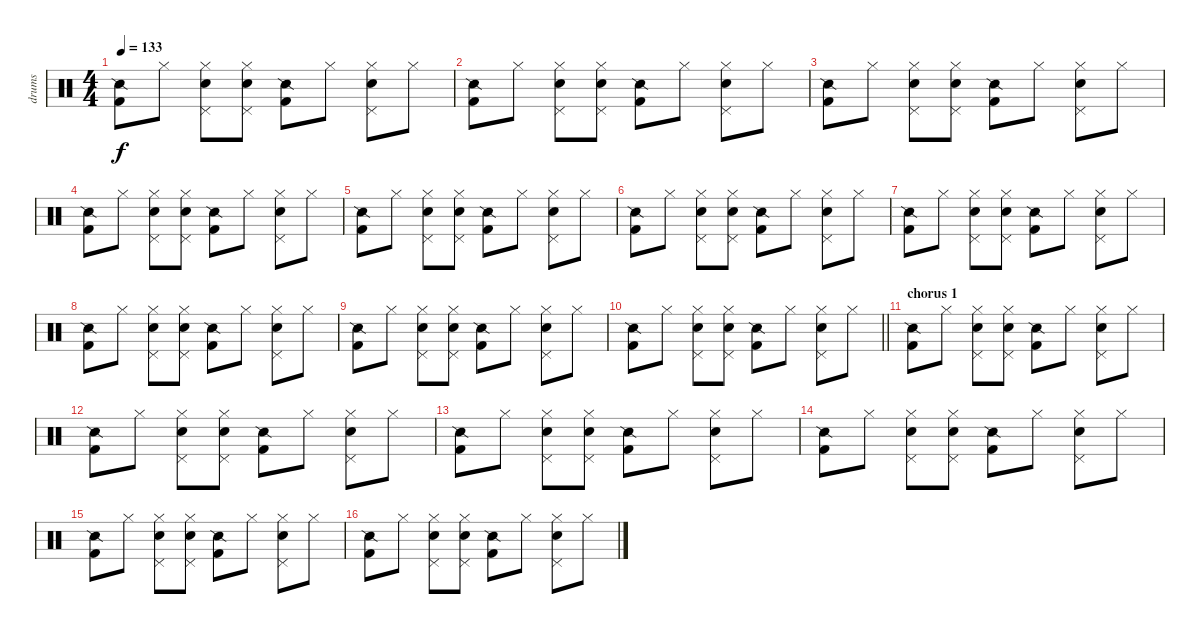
\track ("drums" "drums") {instrument percussion}
\staff {score}
\articulation defaults
\ts (4 4)
\tempo 133
\clef neutral
\ks c
("Snare (side stick) 2" "Kick (hit) 2").8{dy f} "Hi-Hat (closed)".8 ("Hi-Hat (closed)" "Electric Snare (hit)" "Pedal Hi-Hat (hit)").8 ("Hi-Hat (closed)" "Electric Snare (hit)" "Pedal Hi-Hat (hit)").8 ("Snare (side stick) 2" "Kick (hit) 2").8 "Hi-Hat (closed)".8 ("Hi-Hat (closed)" "Electric Snare (hit)" "Pedal Hi-Hat (hit)").8 "Hi-Hat (closed)".8 |
("Snare (side stick) 2" "Kick (hit) 2").8 "Hi-Hat (closed)".8 ("Hi-Hat (closed)" "Electric Snare (hit)" "Pedal Hi-Hat (hit)").8 ("Hi-Hat (closed)" "Electric Snare (hit)" "Pedal Hi-Hat (hit)").8 ("Snare (side stick) 2" "Kick (hit) 2").8 "Hi-Hat (closed)".8 ("Hi-Hat (closed)" "Electric Snare (hit)" "Pedal Hi-Hat (hit)").8 "Hi-Hat (closed)".8 |
("Snare (side stick) 2" "Kick (hit) 2").8 "Hi-Hat (closed)".8 ("Hi-Hat (closed)" "Electric Snare (hit)" "Pedal Hi-Hat (hit)").8 ("Hi-Hat (closed)" "Electric Snare (hit)" "Pedal Hi-Hat (hit)").8 ("Snare (side stick) 2" "Kick (hit) 2").8 "Hi-Hat (closed)".8 ("Hi-Hat (closed)" "Electric Snare (hit)" "Pedal Hi-Hat (hit)").8 "Hi-Hat (closed)".8 |
("Snare (side stick) 2" "Kick (hit) 2").8 "Hi-Hat (closed)".8 ("Hi-Hat (closed)" "Electric Snare (hit)" "Pedal Hi-Hat (hit)").8 ("Hi-Hat (closed)" "Electric Snare (hit)" "Pedal Hi-Hat (hit)").8 ("Snare (side stick) 2" "Kick (hit) 2").8 "Hi-Hat (closed)".8 ("Hi-Hat (closed)" "Electric Snare (hit)" "Pedal Hi-Hat (hit)").8 "Hi-Hat (closed)".8 |
("Snare (side stick) 2" "Kick (hit) 2").8 "Hi-Hat (closed)".8 ("Hi-Hat (closed)" "Electric Snare (hit)" "Pedal Hi-Hat (hit)").8 ("Hi-Hat (closed)" "Electric Snare (hit)" "Pedal Hi-Hat (hit)").8 ("Snare (side stick) 2" "Kick (hit) 2").8 "Hi-Hat (closed)".8 ("Hi-Hat (closed)" "Electric Snare (hit)" "Pedal Hi-Hat (hit)").8 "Hi-Hat (closed)".8 |
("Snare (side stick) 2" "Kick (hit) 2").8 "Hi-Hat (closed)".8 ("Hi-Hat (closed)" "Electric Snare (hit)" "Pedal Hi-Hat (hit)").8 ("Hi-Hat (closed)" "Electric Snare (hit)" "Pedal Hi-Hat (hit)").8 ("Snare (side stick) 2" "Kick (hit) 2").8 "Hi-Hat (closed)".8 ("Hi-Hat (closed)" "Electric Snare (hit)" "Pedal Hi-Hat (hit)").8 "Hi-Hat (closed)".8 |
("Snare (side stick) 2" "Kick (hit) 2").8 "Hi-Hat (closed)".8 ("Hi-Hat (closed)" "Electric Snare (hit)" "Pedal Hi-Hat (hit)").8 ("Hi-Hat (closed)" "Electric Snare (hit)" "Pedal Hi-Hat (hit)").8 ("Snare (side stick) 2" "Kick (hit) 2").8 "Hi-Hat (closed)".8 ("Hi-Hat (closed)" "Electric Snare (hit)" "Pedal Hi-Hat (hit)").8 "Hi-Hat (closed)".8 |
("Snare (side stick) 2" "Kick (hit) 2").8 "Hi-Hat (closed)".8 ("Hi-Hat (closed)" "Electric Snare (hit)" "Pedal Hi-Hat (hit)").8 ("Hi-Hat (closed)" "Electric Snare (hit)" "Pedal Hi-Hat (hit)").8 ("Snare (side stick) 2" "Kick (hit) 2").8 "Hi-Hat (closed)".8 ("Hi-Hat (closed)" "Electric Snare (hit)" "Pedal Hi-Hat (hit)").8 "Hi-Hat (closed)".8 |
("Snare (side stick) 2" "Kick (hit) 2").8 "Hi-Hat (closed)".8 ("Hi-Hat (closed)" "Electric Snare (hit)" "Pedal Hi-Hat (hit)").8 ("Hi-Hat (closed)" "Electric Snare (hit)" "Pedal Hi-Hat (hit)").8 ("Snare (side stick) 2" "Kick (hit) 2").8 "Hi-Hat (closed)".8 ("Hi-Hat (closed)" "Electric Snare (hit)" "Pedal Hi-Hat (hit)").8 "Hi-Hat (closed)".8 |
\barLineRight lightlight
("Snare (side stick) 2" "Kick (hit) 2").8 "Hi-Hat (closed)".8 ("Hi-Hat (closed)" "Electric Snare (hit)" "Pedal Hi-Hat (hit)").8 ("Hi-Hat (closed)" "Electric Snare (hit)" "Pedal Hi-Hat (hit)").8 ("Snare (side stick) 2" "Kick (hit) 2").8 "Hi-Hat (closed)".8 ("Hi-Hat (closed)" "Electric Snare (hit)" "Pedal Hi-Hat (hit)").8 "Hi-Hat (closed)".8 |
\section ("" "chorus 1")
("Snare (side stick) 2" "Kick (hit) 2").8 "Hi-Hat (closed)".8 ("Hi-Hat (closed)" "Electric Snare (hit)" "Pedal Hi-Hat (hit)").8 ("Hi-Hat (closed)" "Electric Snare (hit)" "Pedal Hi-Hat (hit)").8 ("Snare (side stick) 2" "Kick (hit) 2").8 "Hi-Hat (closed)".8 ("Hi-Hat (closed)" "Electric Snare (hit)" "Pedal Hi-Hat (hit)").8 "Hi-Hat (closed)".8 |
("Snare (side stick) 2" "Kick (hit) 2").8 "Hi-Hat (closed)".8 ("Hi-Hat (closed)" "Electric Snare (hit)" "Pedal Hi-Hat (hit)").8 ("Hi-Hat (closed)" "Electric Snare (hit)" "Pedal Hi-Hat (hit)").8 ("Snare (side stick) 2" "Kick (hit) 2").8 "Hi-Hat (closed)".8 ("Hi-Hat (closed)" "Electric Snare (hit)" "Pedal Hi-Hat (hit)").8 "Hi-Hat (closed)".8 |
("Snare (side stick) 2" "Kick (hit) 2").8 "Hi-Hat (closed)".8 ("Hi-Hat (closed)" "Electric Snare (hit)" "Pedal Hi-Hat (hit)").8 ("Hi-Hat (closed)" "Electric Snare (hit)" "Pedal Hi-Hat (hit)").8 ("Snare (side stick) 2" "Kick (hit) 2").8 "Hi-Hat (closed)".8 ("Hi-Hat (closed)" "Electric Snare (hit)" "Pedal Hi-Hat (hit)").8 "Hi-Hat (closed)".8 |
("Snare (side stick) 2" "Kick (hit) 2").8 "Hi-Hat (closed)".8 ("Hi-Hat (closed)" "Electric Snare (hit)" "Pedal Hi-Hat (hit)").8 ("Hi-Hat (closed)" "Electric Snare (hit)" "Pedal Hi-Hat (hit)").8 ("Snare (side stick) 2" "Kick (hit) 2").8 "Hi-Hat (closed)".8 ("Hi-Hat (closed)" "Electric Snare (hit)" "Pedal Hi-Hat (hit)").8 "Hi-Hat (closed)".8 |
("Snare (side stick) 2" "Kick (hit) 2").8 "Hi-Hat (closed)".8 ("Hi-Hat (closed)" "Electric Snare (hit)" "Pedal Hi-Hat (hit)").8 ("Hi-Hat (closed)" "Electric Snare (hit)" "Pedal Hi-Hat (hit)").8 ("Snare (side stick) 2" "Kick (hit) 2").8 "Hi-Hat (closed)".8 ("Hi-Hat (closed)" "Electric Snare (hit)" "Pedal Hi-Hat (hit)").8 "Hi-Hat (closed)".8 |
("Snare (side stick) 2" "Kick (hit) 2").8 "Hi-Hat (closed)".8 ("Hi-Hat (closed)" "Electric Snare (hit)" "Pedal Hi-Hat (hit)").8 ("Hi-Hat (closed)" "Electric Snare (hit)" "Pedal Hi-Hat (hit)").8 ("Snare (side stick) 2" "Kick (hit) 2").8 "Hi-Hat (closed)".8 ("Hi-Hat (closed)" "Electric Snare (hit)" "Pedal Hi-Hat (hit)").8 "Hi-Hat (closed)".8
